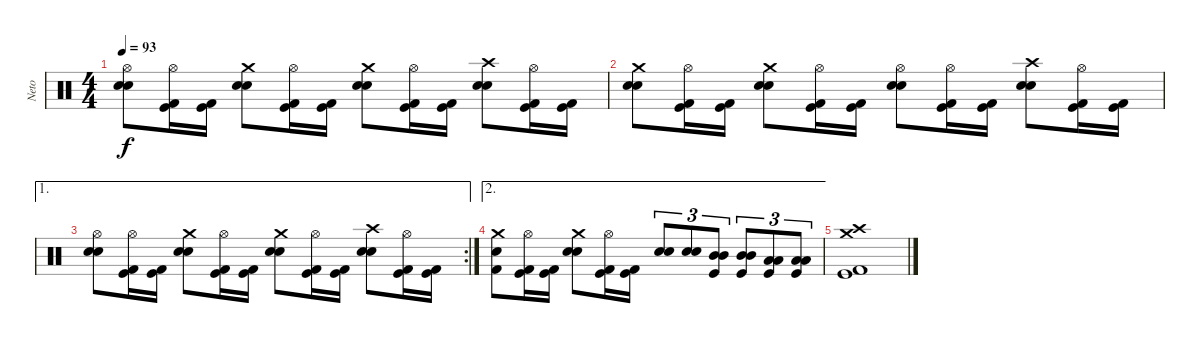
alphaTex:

\track ("Neto" "Neto") {instrument percussion}
\staff {score}
\articulation defaults
\ts (4 4)
\tempo 93
\clef neutral
\ks c
("Hi-Hat (open)" "Snare (hit) 2" "Snare (hit) 2").8{dy f} ("Hi-Hat (open)" "Kick (hit)" "Kick (hit) 2").16 ("Kick (hit)" "Kick (hit) 2").16 ("Crash medium (hit)" "Snare (hit) 2" "Snare (hit) 2").8 ("Hi-Hat (open)" "Kick (hit)" "Kick (hit) 2").16 ("Kick (hit)" "Kick (hit) 2").16 ("Crash medium (hit)" "Snare (hit) 2" "Snare (hit) 2").8 ("Hi-Hat (open)" "Kick (hit)" "Kick (hit) 2").16 ("Kick (hit)" "Kick (hit) 2").16 ("Crash high (hit)" "Snare (hit) 2" "Snare (hit) 2").8 ("Hi-Hat (open)" "Kick (hit)" "Kick (hit) 2").16 ("Kick (hit)" "Kick (hit) 2").16 |
("Crash medium (hit)" "Snare (hit) 2" "Snare (hit) 2").8 ("Hi-Hat (open)" "Kick (hit)" "Kick (hit) 2").16 ("Kick (hit)" "Kick (hit) 2").16 ("Crash medium (hit)" "Snare (hit) 2" "Snare (hit) 2").8 ("Hi-Hat (open)" "Kick (hit)" "Kick (hit) 2").16 ("Kick (hit)" "Kick (hit) 2").16 ("Hi-Hat (open)" "Snare (hit) 2" "Snare (hit) 2").8 ("Hi-Hat (open)" "Kick (hit)" "Kick (hit) 2").16 ("Kick (hit)" "Kick (hit) 2").16 ("Crash high (hit)" "Snare (hit) 2" "Snare (hit) 2").8 ("Hi-Hat (open)" "Kick (hit)" "Kick (hit) 2").16 ("Kick (hit)" "Kick (hit) 2").16 |
\ae 1
\rc 2
("Hi-Hat (open)" "Snare (hit) 2" "Snare (hit) 2").8 ("Hi-Hat (open)" "Kick (hit)" "Kick (hit) 2").16 ("Kick (hit)" "Kick (hit) 2").16 ("Crash medium (hit)" "Snare (hit) 2" "Snare (hit) 2").8 ("Hi-Hat (open)" "Kick (hit)" "Kick (hit) 2").16 ("Kick (hit)" "Kick (hit) 2").16 ("Crash medium (hit)" "Snare (hit) 2" "Snare (hit) 2").8 ("Hi-Hat (open)" "Kick (hit)" "Kick (hit) 2").16 ("Kick (hit)" "Kick (hit) 2").16 ("Crash high (hit)" "Snare (hit) 2" "Snare (hit) 2").8 ("Hi-Hat (open)" "Kick (hit)" "Kick (hit) 2").16 ("Kick (hit)" "Kick (hit) 2").16 |
\ae 2
("Crash medium (hit)" "Snare (hit) 2" "Kick (hit) 2").8 ("Hi-Hat (open)" "Kick (hit)" "Kick (hit) 2").16 ("Kick (hit)" "Kick (hit) 2").16 ("Crash medium (hit)" "Snare (hit) 2" "Snare (hit) 2").8 ("Hi-Hat (open)" "Kick (hit)" "Kick (hit) 2").16 ("Kick (hit)" "Kick (hit) 2").16 ("Snare (hit) 2" "Snare (hit) 2").8{tu (3 2)} ("Snare (hit) 2" "Snare (hit) 2").8{tu (3 2)} ("Mid Tom (hit)" "Mid Tom (hit)" "Kick (hit)").8{tu (3 2)} ("Mid Tom (hit)" "Mid Tom (hit)" "Kick (hit)").8{tu (3 2)} ("Low Tom (hit)" "Low Tom (hit)" "Kick (hit)").8{tu (3 2)} ("Low Tom (hit)" "Low Tom (hit)" "Kick (hit)").8{tu (3 2)} |
("Crash high (hit)" "Crash medium (hit)" "Kick (hit)" "Kick (hit) 2").1
